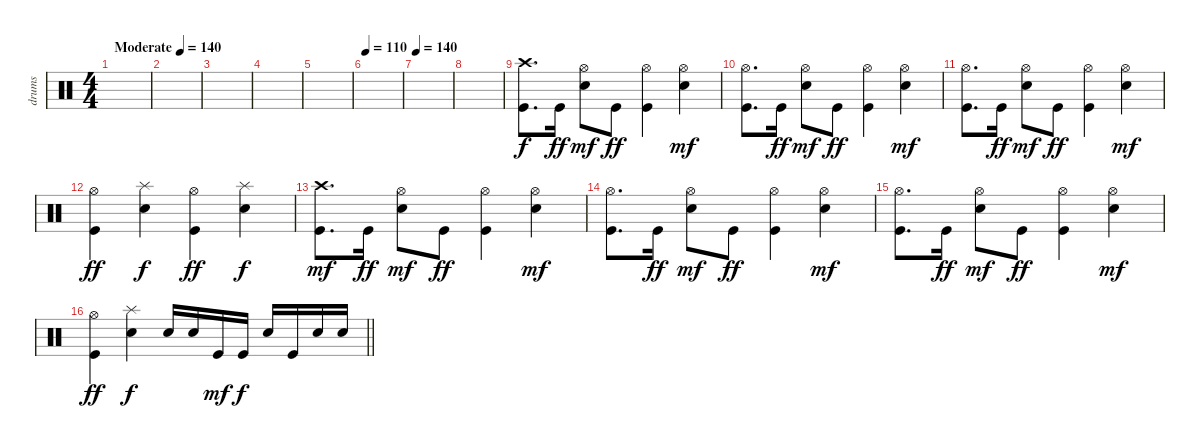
\track ("drums" "drums") {instrument percussion}
\staff {score}
\articulation defaults
\ts (4 4)
\tempo (140 "Moderate")
\tempo 128
\tempo (140 "Moderate")
\clef neutral
\ks c
|
|
|
|
|
\tempo 110
|
\tempo 140
|
|
("Crash high (hit)" "Kick (hit)").8{d} "Kick (hit)".16{dy ff} ("Hi-Hat (open)" "Electric Snare (hit)").8{dy mf} "Kick (hit)".8{dy ff} ("Hi-Hat (open)" "Kick (hit)").4 ("Hi-Hat (open)" "Electric Snare (hit)").4{dy mf} |
("Hi-Hat (open)" "Kick (hit)").8{d} "Kick (hit)".16{dy ff} ("Hi-Hat (open)" "Electric Snare (hit)").8{dy mf} "Kick (hit)".8{dy ff} ("Hi-Hat (open)" "Kick (hit)").4 ("Hi-Hat (open)" "Electric Snare (hit)").4{dy mf} |
("Hi-Hat (open)" "Kick (hit)").8{d} "Kick (hit)".16{dy ff} ("Hi-Hat (open)" "Electric Snare (hit)").8{dy mf} "Kick (hit)".8{dy ff} ("Hi-Hat (open)" "Kick (hit)").4 ("Hi-Hat (open)" "Electric Snare (hit)").4{dy mf} |
("Hi-Hat (open)" "Kick (hit)").4{dy ff} ("Splash (hit)" "Electric Snare (hit)").4{dy f} ("Hi-Hat (open)" "Kick (hit)").4{dy ff} ("Splash (hit)" "Electric Snare (hit)").4{dy f} |
("Crash high (hit)" "Kick (hit)").8{d dy mf} "Kick (hit)".16{dy ff} ("Hi-Hat (open)" "Electric Snare (hit)").8{dy mf} "Kick (hit)".8{dy ff} ("Hi-Hat (open)" "Kick (hit)").4 ("Hi-Hat (open)" "Electric Snare (hit)").4{dy mf} |
("Hi-Hat (open)" "Kick (hit)").8{d} "Kick (hit)".16{dy ff} ("Hi-Hat (open)" "Electric Snare (hit)").8{dy mf} "Kick (hit)".8{dy ff} ("Hi-Hat (open)" "Kick (hit)").4 ("Hi-Hat (open)" "Electric Snare (hit)").4{dy mf} |
("Hi-Hat (open)" "Kick (hit)").8{d} "Kick (hit)".16{dy ff} ("Hi-Hat (open)" "Electric Snare (hit)").8{dy mf} "Kick (hit)".8{dy ff} ("Hi-Hat (open)" "Kick (hit)").4 ("Hi-Hat (open)" "Electric Snare (hit)").4{dy mf} |
\barLineRight lightlight
("Hi-Hat (open)" "Kick (hit)").4{dy ff} ("Splash (hit)" "Electric Snare (hit)").4{dy f} "Electric Snare (hit)".16 "Electric Snare (hit)".16 "Kick (hit)".16{dy mf} "Kick (hit)".16{dy f} "Electric Snare (hit)".16 "Kick (hit)".16 "Electric Snare (hit)".16 "Electric Snare (hit)".16
